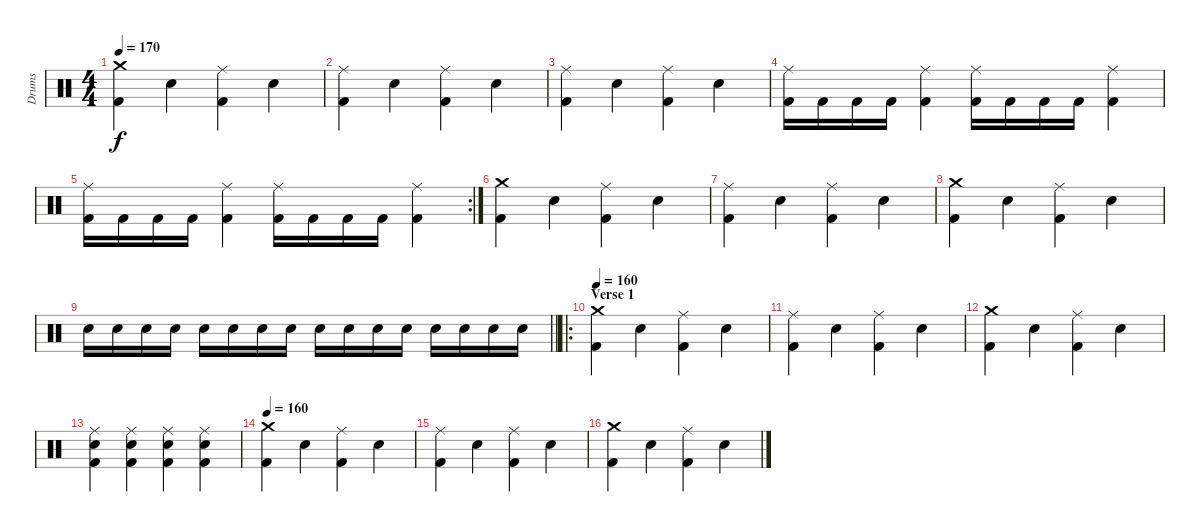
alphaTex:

\track ("Drums" "Drums") {instrument percussion}
\staff {score}
\articulation defaults
\ts (4 4)
\tempo 170
\clef neutral
\ks c
("Crash medium (hit)" "Kick (hit) 2").4{dy f} "Electric Snare (hit)".4 ("Ride (middle)" "Kick (hit) 2").4 "Electric Snare (hit)".4 |
("Ride (middle)" "Kick (hit) 2").4 "Electric Snare (hit)".4 ("Ride (middle)" "Kick (hit) 2").4 "Electric Snare (hit)".4 |
("Ride (middle)" "Kick (hit) 2").4 "Electric Snare (hit)".4 ("Ride (middle)" "Kick (hit) 2").4 "Electric Snare (hit)".4 |
("Ride (middle)" "Kick (hit) 2").16 "Kick (hit) 2".16 "Kick (hit) 2".16 "Kick (hit) 2".16 ("Ride (middle)" "Kick (hit) 2").4 ("Ride (middle)" "Kick (hit) 2").16 "Kick (hit) 2".16 "Kick (hit) 2".16 "Kick (hit) 2".16 ("Ride (middle)" "Kick (hit) 2").4 |
\rc 2
("Ride (middle)" "Kick (hit) 2").16 "Kick (hit) 2".16 "Kick (hit) 2".16 "Kick (hit) 2".16 ("Ride (middle)" "Kick (hit) 2").4 ("Ride (middle)" "Kick (hit) 2").16 "Kick (hit) 2".16 "Kick (hit) 2".16 "Kick (hit) 2".16 ("Ride (middle)" "Kick (hit) 2").4 |
("Crash medium (hit)" "Kick (hit) 2").4 "Electric Snare (hit)".4 ("Ride (middle)" "Kick (hit) 2").4 "Electric Snare (hit)".4 |
("Ride (middle)" "Kick (hit) 2").4 "Electric Snare (hit)".4 ("Ride (middle)" "Kick (hit) 2").4 "Electric Snare (hit)".4 |
("Crash medium (hit)" "Kick (hit) 2").4 "Electric Snare (hit)".4 ("Ride (middle)" "Kick (hit) 2").4 "Electric Snare (hit)".4 |
\barLineRight lightlight "Snare (hit) 2".16 "Snare (hit) 2".16 "Snare (hit) 2".16 "Snare (hit) 2".16 "Snare (hit) 2".16 "Snare (hit) 2".16 "Snare (hit) 2".16 "Snare (hit) 2".16 "Snare (hit) 2".16 "Snare (hit) 2".16 "Snare (hit) 2".16 "Snare (hit) 2".16 "Snare (hit) 2".16 "Snare (hit) 2".16 "Snare (hit) 2".16 "Snare (hit) 2".16
|
\ro
\section ("" "Verse 1")
\tempo 160
("Crash medium (hit)" "Kick (hit) 2").4 "Electric Snare (hit)".4 ("Ride (middle)" "Kick (hit) 2").4 "Electric Snare (hit)".4 |
("Ride (middle)" "Kick (hit) 2").4 "Electric Snare (hit)".4 ("Ride (middle)" "Kick (hit) 2").4 "Electric Snare (hit)".4 |
("Crash medium (hit)" "Kick (hit) 2").4 "Electric Snare (hit)".4 ("Ride (middle)" "Kick (hit) 2").4 "Electric Snare (hit)".4 |
("Ride (middle)" "Electric Snare (hit)" "Kick (hit) 2").4 ("Ride (middle)" "Electric Snare (hit)" "Kick (hit) 2").4 ("Ride (middle)" "Electric Snare (hit)" "Kick (hit) 2").4 ("Ride (middle)" "Electric Snare (hit)" "Kick (hit) 2").4 |
\tempo 160
("Crash medium (hit)" "Kick (hit) 2").4 "Electric Snare (hit)".4 ("Ride (middle)" "Kick (hit) 2").4 "Electric Snare (hit)".4 |
("Ride (middle)" "Kick (hit) 2").4 "Electric Snare (hit)".4 ("Ride (middle)" "Kick (hit) 2").4 "Electric Snare (hit)".4 |
("Crash medium (hit)" "Kick (hit) 2").4 "Electric Snare (hit)".4 ("Ride (middle)" "Kick (hit) 2").4 "Electric Snare (hit)".4
